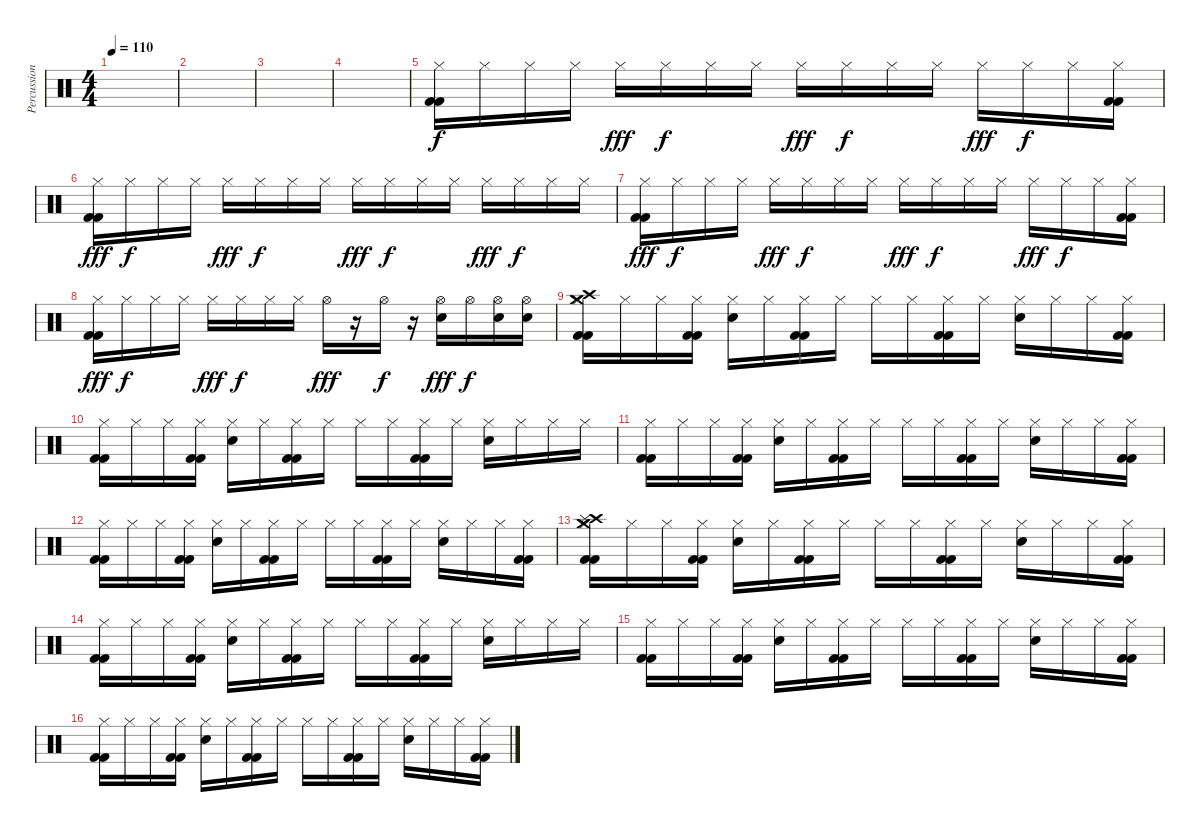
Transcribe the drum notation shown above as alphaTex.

\track ("Percussion" "Percussion") {instrument percussion}
\staff {score}
\articulation defaults
\ts (4 4)
\tempo 110
\clef neutral
\ks c
|
|
|
|
("Kick (hit) 2" "Hi-Hat (closed)" "Kick (hit) 2").16 "Hi-Hat (closed)".16{dy f} "Hi-Hat (closed)".16 "Hi-Hat (closed)".16 "Hi-Hat (closed)".16{dy fff} "Hi-Hat (closed)".16{dy f} "Hi-Hat (closed)".16 "Hi-Hat (closed)".16 "Hi-Hat (closed)".16{dy fff} "Hi-Hat (closed)".16{dy f} "Hi-Hat (closed)".16 "Hi-Hat (closed)".16 "Hi-Hat (closed)".16{dy fff} "Hi-Hat (closed)".16{dy f} "Hi-Hat (closed)".16 ("Kick (hit) 2" "Hi-Hat (closed)" "Kick (hit) 2").16 |
("Kick (hit) 2" "Hi-Hat (closed)" "Kick (hit) 2").16{dy fff} "Hi-Hat (closed)".16{dy f} "Hi-Hat (closed)".16 "Hi-Hat (closed)".16 "Hi-Hat (closed)".16{dy fff} "Hi-Hat (closed)".16{dy f} "Hi-Hat (closed)".16 "Hi-Hat (closed)".16 "Hi-Hat (closed)".16{dy fff} "Hi-Hat (closed)".16{dy f} "Hi-Hat (closed)".16 "Hi-Hat (closed)".16 "Hi-Hat (closed)".16{dy fff} "Hi-Hat (closed)".16{dy f} "Hi-Hat (closed)".16 "Hi-Hat (closed)".16 |
("Kick (hit) 2" "Hi-Hat (closed)" "Kick (hit) 2").16{dy fff} "Hi-Hat (closed)".16{dy f} "Hi-Hat (closed)".16 "Hi-Hat (closed)".16 "Hi-Hat (closed)".16{dy fff} "Hi-Hat (closed)".16{dy f} "Hi-Hat (closed)".16 "Hi-Hat (closed)".16 "Hi-Hat (closed)".16{dy fff} "Hi-Hat (closed)".16{dy f} "Hi-Hat (closed)".16 "Hi-Hat (closed)".16 "Hi-Hat (closed)".16{dy fff} "Hi-Hat (closed)".16{dy f} "Hi-Hat (closed)".16 ("Kick (hit) 2" "Hi-Hat (closed)" "Kick (hit) 2").16 |
("Kick (hit) 2" "Hi-Hat (closed)" "Kick (hit) 2").16{dy fff} "Hi-Hat (closed)".16{dy f} "Hi-Hat (closed)".16 "Hi-Hat (closed)".16 "Hi-Hat (closed)".16{dy fff} "Hi-Hat (closed)".16{dy f} "Hi-Hat (closed)".16 "Hi-Hat (closed)".16 "Hi-Hat (open)".16{dy fff} r.16 "Hi-Hat (open)".16{dy f} r.16 ("Electric Snare (hit)" "Hi-Hat (open)").16{dy fff} "Hi-Hat (open)".16{dy f} ("Electric Snare (hit)" "Hi-Hat (open)").16 ("Electric Snare (hit)" "Hi-Hat (open)").16 |
("Hi-Hat (closed)" "Crash high (hit)" "Crash medium (hit)" "Kick (hit) 2" "Kick (hit) 2").16 "Hi-Hat (closed)".16 "Hi-Hat (closed)".16 ("Hi-Hat (closed)" "Kick (hit) 2" "Kick (hit) 2").16 ("Hi-Hat (closed)" "Electric Snare (hit)").16 "Hi-Hat (closed)".16 ("Hi-Hat (closed)" "Kick (hit) 2" "Kick (hit) 2").16 "Hi-Hat (closed)".16 "Hi-Hat (closed)".16 "Hi-Hat (closed)".16 ("Hi-Hat (closed)" "Kick (hit) 2" "Kick (hit) 2").16 "Hi-Hat (closed)".16 ("Hi-Hat (closed)" "Electric Snare (hit)").16 "Hi-Hat (closed)".16 "Hi-Hat (closed)".16 ("Hi-Hat (closed)" "Kick (hit) 2" "Kick (hit) 2").16 |
("Hi-Hat (closed)" "Kick (hit) 2" "Kick (hit) 2").16 "Hi-Hat (closed)".16 "Hi-Hat (closed)".16 ("Hi-Hat (closed)" "Kick (hit) 2" "Kick (hit) 2").16 ("Hi-Hat (closed)" "Electric Snare (hit)").16 "Hi-Hat (closed)".16 ("Hi-Hat (closed)" "Kick (hit) 2" "Kick (hit) 2").16 "Hi-Hat (closed)".16 "Hi-Hat (closed)".16 "Hi-Hat (closed)".16 ("Hi-Hat (closed)" "Kick (hit) 2" "Kick (hit) 2").16 "Hi-Hat (closed)".16 ("Hi-Hat (closed)" "Electric Snare (hit)").16 "Hi-Hat (closed)".16 "Hi-Hat (closed)".16 "Hi-Hat (closed)".16 |
("Hi-Hat (closed)" "Kick (hit) 2" "Kick (hit) 2").16 "Hi-Hat (closed)".16 "Hi-Hat (closed)".16 ("Hi-Hat (closed)" "Kick (hit) 2" "Kick (hit) 2").16 ("Hi-Hat (closed)" "Electric Snare (hit)").16 "Hi-Hat (closed)".16 ("Hi-Hat (closed)" "Kick (hit) 2" "Kick (hit) 2").16 "Hi-Hat (closed)".16 "Hi-Hat (closed)".16 "Hi-Hat (closed)".16 ("Hi-Hat (closed)" "Kick (hit) 2" "Kick (hit) 2").16 "Hi-Hat (closed)".16 ("Hi-Hat (closed)" "Electric Snare (hit)").16 "Hi-Hat (closed)".16 "Hi-Hat (closed)".16 ("Hi-Hat (closed)" "Kick (hit) 2" "Kick (hit) 2").16 |
("Hi-Hat (closed)" "Kick (hit) 2" "Kick (hit) 2").16 "Hi-Hat (closed)".16 "Hi-Hat (closed)".16 ("Hi-Hat (closed)" "Kick (hit) 2" "Kick (hit) 2").16 ("Hi-Hat (closed)" "Electric Snare (hit)").16 "Hi-Hat (closed)".16 ("Hi-Hat (closed)" "Kick (hit) 2" "Kick (hit) 2").16 "Hi-Hat (closed)".16 "Hi-Hat (closed)".16 "Hi-Hat (closed)".16 ("Hi-Hat (closed)" "Kick (hit) 2" "Kick (hit) 2").16 "Hi-Hat (closed)".16 ("Hi-Hat (closed)" "Electric Snare (hit)").16 "Hi-Hat (closed)".16 "Hi-Hat (closed)".16 ("Hi-Hat (closed)" "Kick (hit) 2" "Kick (hit) 2").16 |
("Hi-Hat (closed)" "Crash medium (hit)" "Crash high (hit)" "Splash (hit)" "Kick (hit) 2" "Kick (hit) 2").16 "Hi-Hat (closed)".16 "Hi-Hat (closed)".16 ("Hi-Hat (closed)" "Kick (hit) 2" "Kick (hit) 2").16 ("Hi-Hat (closed)" "Electric Snare (hit)").16 "Hi-Hat (closed)".16 ("Hi-Hat (closed)" "Kick (hit) 2" "Kick (hit) 2").16 "Hi-Hat (closed)".16 "Hi-Hat (closed)".16 "Hi-Hat (closed)".16 ("Hi-Hat (closed)" "Kick (hit) 2" "Kick (hit) 2").16 "Hi-Hat (closed)".16 ("Hi-Hat (closed)" "Electric Snare (hit)").16 "Hi-Hat (closed)".16 "Hi-Hat (closed)".16 ("Hi-Hat (closed)" "Kick (hit) 2" "Kick (hit) 2").16 |
("Hi-Hat (closed)" "Kick (hit) 2" "Kick (hit) 2").16 "Hi-Hat (closed)".16 "Hi-Hat (closed)".16 ("Hi-Hat (closed)" "Kick (hit) 2" "Kick (hit) 2").16 ("Hi-Hat (closed)" "Electric Snare (hit)").16 "Hi-Hat (closed)".16 ("Hi-Hat (closed)" "Kick (hit) 2" "Kick (hit) 2").16 "Hi-Hat (closed)".16 "Hi-Hat (closed)".16 "Hi-Hat (closed)".16 ("Hi-Hat (closed)" "Kick (hit) 2" "Kick (hit) 2").16 "Hi-Hat (closed)".16 ("Hi-Hat (closed)" "Electric Snare (hit)").16 "Hi-Hat (closed)".16 "Hi-Hat (closed)".16 "Hi-Hat (closed)".16 |
("Hi-Hat (closed)" "Kick (hit) 2" "Kick (hit) 2").16 "Hi-Hat (closed)".16 "Hi-Hat (closed)".16 ("Hi-Hat (closed)" "Kick (hit) 2" "Kick (hit) 2").16 ("Hi-Hat (closed)" "Electric Snare (hit)").16 "Hi-Hat (closed)".16 ("Hi-Hat (closed)" "Kick (hit) 2" "Kick (hit) 2").16 "Hi-Hat (closed)".16 "Hi-Hat (closed)".16 "Hi-Hat (closed)".16 ("Hi-Hat (closed)" "Kick (hit) 2" "Kick (hit) 2").16 "Hi-Hat (closed)".16 ("Hi-Hat (closed)" "Electric Snare (hit)").16 "Hi-Hat (closed)".16 "Hi-Hat (closed)".16 ("Hi-Hat (closed)" "Kick (hit) 2" "Kick (hit) 2").16 |
("Hi-Hat (closed)" "Kick (hit) 2" "Kick (hit) 2").16 "Hi-Hat (closed)".16 "Hi-Hat (closed)".16 ("Hi-Hat (closed)" "Kick (hit) 2" "Kick (hit) 2").16 ("Hi-Hat (closed)" "Electric Snare (hit)").16 "Hi-Hat (closed)".16 ("Hi-Hat (closed)" "Kick (hit) 2" "Kick (hit) 2").16 "Hi-Hat (closed)".16 "Hi-Hat (closed)".16 "Hi-Hat (closed)".16 ("Hi-Hat (closed)" "Kick (hit) 2" "Kick (hit) 2").16 "Hi-Hat (closed)".16 ("Hi-Hat (closed)" "Electric Snare (hit)").16 "Hi-Hat (closed)".16 "Hi-Hat (closed)".16 ("Hi-Hat (closed)" "Kick (hit) 2" "Kick (hit) 2").16
